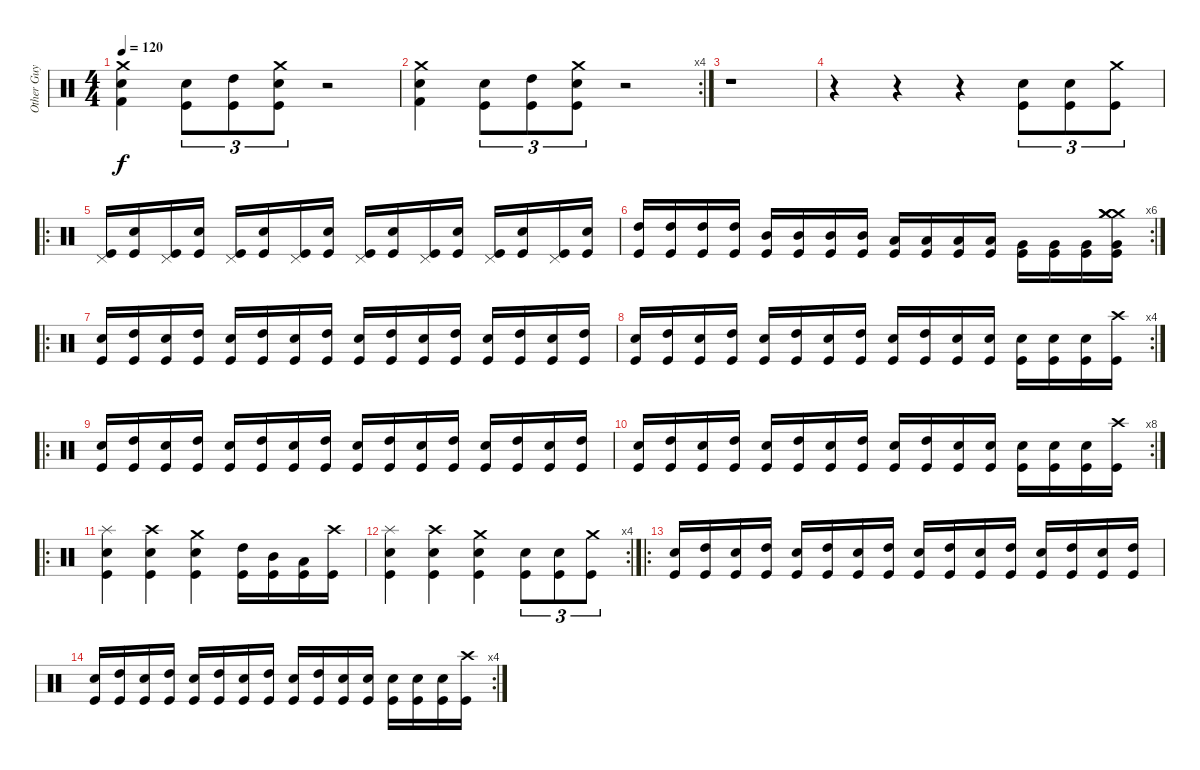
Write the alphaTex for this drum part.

\track ("Other Guy" "Other Guy") {instrument percussion}
\staff {score}
\articulation defaults
\ts (4 4)
\tempo 120
\clef neutral
\ks c
("Crash medium (hit)" "Electric Snare (hit)" "Kick (hit) 2").4{dy f} ("Electric Snare (hit)" "Kick (hit)").8{tu (3 2)} ("High Tom (hit)" "Kick (hit)").8{tu (3 2)} ("Crash medium (hit)" "Electric Snare (hit)" "Kick (hit)").8{tu (3 2)} r.2 |
\rc 4
("Crash medium (hit)" "Electric Snare (hit)" "Kick (hit) 2").4 ("Electric Snare (hit)" "Kick (hit)").8{tu (3 2)} ("High Tom (hit)" "Kick (hit)").8{tu (3 2)} ("Crash medium (hit)" "Electric Snare (hit)" "Kick (hit)").8{tu (3 2)} r.2 |
r.1 |
r.4 r.4 r.4 ("Electric Snare (hit)" "Kick (hit)").8{tu (3 2)} ("Electric Snare (hit)" "Kick (hit)").8{tu (3 2)} ("Crash medium (hit)" "Kick (hit)").8{tu (3 2)} |
\ro
("Pedal Hi-Hat (hit)" "Kick (hit)").16 ("Electric Snare (hit)" "Kick (hit)").16 ("Pedal Hi-Hat (hit)" "Kick (hit)").16 ("Electric Snare (hit)" "Kick (hit)").16 ("Pedal Hi-Hat (hit)" "Kick (hit)").16 ("Electric Snare (hit)" "Kick (hit)").16 ("Pedal Hi-Hat (hit)" "Kick (hit)").16 ("Electric Snare (hit)" "Kick (hit)").16 ("Pedal Hi-Hat (hit)" "Kick (hit)").16 ("Electric Snare (hit)" "Kick (hit)").16 ("Pedal Hi-Hat (hit)" "Kick (hit)").16 ("Electric Snare (hit)" "Kick (hit)").16 ("Pedal Hi-Hat (hit)" "Kick (hit)").16 ("Electric Snare (hit)" "Kick (hit)").16 ("Pedal Hi-Hat (hit)" "Kick (hit)").16 ("Electric Snare (hit)" "Kick (hit)").16 |
\rc 6
("High Tom (hit)" "Kick (hit)").16 ("High Tom (hit)" "Kick (hit)").16 ("High Tom (hit)" "Kick (hit)").16 ("High Tom (hit)" "Kick (hit)").16 ("Mid Tom (hit)" "Kick (hit)").16 ("Mid Tom (hit)" "Kick (hit)").16 ("Mid Tom (hit)" "Kick (hit)").16 ("Mid Tom (hit)" "Kick (hit)").16 ("Low Tom (hit)" "Kick (hit)").16 ("Low Tom (hit)" "Kick (hit)").16 ("Low Tom (hit)" "Kick (hit)").16 ("Low Tom (hit)" "Kick (hit)").16 ("Very Low Tom (hit)" "Kick (hit)").16 ("Very Low Tom (hit)" "Kick (hit)").16 ("Very Low Tom (hit)" "Kick (hit)").16 ("Very Low Tom (hit)" "Crash medium (hit)" "Crash medium (hit)" "Crash medium (hit)" "Kick (hit)").16 |
\ro
("Electric Snare (hit)" "Kick (hit)").16 ("High Tom (hit)" "Kick (hit)").16 ("Electric Snare (hit)" "Kick (hit)").16 ("High Tom (hit)" "Kick (hit)").16 ("Electric Snare (hit)" "Kick (hit)").16 ("High Tom (hit)" "Kick (hit)").16 ("Electric Snare (hit)" "Kick (hit)").16 ("High Tom (hit)" "Kick (hit)").16 ("Electric Snare (hit)" "Kick (hit)").16 ("High Tom (hit)" "Kick (hit)").16 ("Electric Snare (hit)" "Kick (hit)").16 ("High Tom (hit)" "Kick (hit)").16 ("Electric Snare (hit)" "Kick (hit)").16 ("High Tom (hit)" "Kick (hit)").16 ("Electric Snare (hit)" "Kick (hit)").16 ("High Tom (hit)" "Kick (hit)").16 |
\rc 4
("Electric Snare (hit)" "Kick (hit)").16 ("High Tom (hit)" "Kick (hit)").16 ("Electric Snare (hit)" "Kick (hit)").16 ("High Tom (hit)" "Kick (hit)").16 ("Electric Snare (hit)" "Kick (hit)").16 ("High Tom (hit)" "Kick (hit)").16 ("Electric Snare (hit)" "Kick (hit)").16 ("High Tom (hit)" "Kick (hit)").16 ("Electric Snare (hit)" "Kick (hit)").16 ("High Tom (hit)" "Kick (hit)").16 ("Electric Snare (hit)" "Kick (hit)").16 ("Electric Snare (hit)" "Kick (hit)").16 ("Electric Snare (hit)" "Kick (hit)").16 ("Electric Snare (hit)" "Kick (hit)").16 ("Electric Snare (hit)" "Kick (hit)").16 ("Crash high (hit)" "Kick (hit)").16 |
\ro
("Electric Snare (hit)" "Kick (hit)").16 ("High Tom (hit)" "Kick (hit)").16 ("Electric Snare (hit)" "Kick (hit)").16 ("High Tom (hit)" "Kick (hit)").16 ("Electric Snare (hit)" "Kick (hit)").16 ("High Tom (hit)" "Kick (hit)").16 ("Electric Snare (hit)" "Kick (hit)").16 ("High Tom (hit)" "Kick (hit)").16 ("Electric Snare (hit)" "Kick (hit)").16 ("High Tom (hit)" "Kick (hit)").16 ("Electric Snare (hit)" "Kick (hit)").16 ("High Tom (hit)" "Kick (hit)").16 ("Electric Snare (hit)" "Kick (hit)").16 ("High Tom (hit)" "Kick (hit)").16 ("Electric Snare (hit)" "Kick (hit)").16 ("High Tom (hit)" "Kick (hit)").16 |
\rc 8
("Electric Snare (hit)" "Kick (hit)").16 ("High Tom (hit)" "Kick (hit)").16 ("Electric Snare (hit)" "Kick (hit)").16 ("High Tom (hit)" "Kick (hit)").16 ("Electric Snare (hit)" "Kick (hit)").16 ("High Tom (hit)" "Kick (hit)").16 ("Electric Snare (hit)" "Kick (hit)").16 ("High Tom (hit)" "Kick (hit)").16 ("Electric Snare (hit)" "Kick (hit)").16 ("High Tom (hit)" "Kick (hit)").16 ("Electric Snare (hit)" "Kick (hit)").16 ("Electric Snare (hit)" "Kick (hit)").16 ("Electric Snare (hit)" "Kick (hit)").16 ("Electric Snare (hit)" "Kick (hit)").16 ("Electric Snare (hit)" "Kick (hit)").16 ("Crash high (hit)" "Kick (hit)").16 |
\ro
("Splash (hit)" "Electric Snare (hit)" "Kick (hit)").4 ("Crash high (hit)" "Electric Snare (hit)" "Kick (hit)").4 ("Crash medium (hit)" "Electric Snare (hit)" "Kick (hit)").4 ("High Tom (hit)" "Kick (hit)").16 ("Mid Tom (hit)" "Kick (hit)").16 ("Low Tom (hit)" "Kick (hit)").16 ("Crash high (hit)" "Kick (hit)").16 |
\rc 4
("Splash (hit)" "Electric Snare (hit)" "Kick (hit)").4 ("Crash high (hit)" "Electric Snare (hit)" "Kick (hit)").4 ("Crash medium (hit)" "Electric Snare (hit)" "Kick (hit)").4 ("Electric Snare (hit)" "Kick (hit)").8{tu (3 2)} ("Electric Snare (hit)" "Kick (hit)").8{tu (3 2)} ("Crash medium (hit)" "Kick (hit)").8{tu (3 2)} |
\ro
("Electric Snare (hit)" "Kick (hit)").16 ("High Tom (hit)" "Kick (hit)").16 ("Electric Snare (hit)" "Kick (hit)").16 ("High Tom (hit)" "Kick (hit)").16 ("Electric Snare (hit)" "Kick (hit)").16 ("High Tom (hit)" "Kick (hit)").16 ("Electric Snare (hit)" "Kick (hit)").16 ("High Tom (hit)" "Kick (hit)").16 ("Electric Snare (hit)" "Kick (hit)").16 ("High Tom (hit)" "Kick (hit)").16 ("Electric Snare (hit)" "Kick (hit)").16 ("High Tom (hit)" "Kick (hit)").16 ("Electric Snare (hit)" "Kick (hit)").16 ("High Tom (hit)" "Kick (hit)").16 ("Electric Snare (hit)" "Kick (hit)").16 ("High Tom (hit)" "Kick (hit)").16 |
\rc 4
("Electric Snare (hit)" "Kick (hit)").16 ("High Tom (hit)" "Kick (hit)").16 ("Electric Snare (hit)" "Kick (hit)").16 ("High Tom (hit)" "Kick (hit)").16 ("Electric Snare (hit)" "Kick (hit)").16 ("High Tom (hit)" "Kick (hit)").16 ("Electric Snare (hit)" "Kick (hit)").16 ("High Tom (hit)" "Kick (hit)").16 ("Electric Snare (hit)" "Kick (hit)").16 ("High Tom (hit)" "Kick (hit)").16 ("Electric Snare (hit)" "Kick (hit)").16 ("Electric Snare (hit)" "Kick (hit)").16 ("Electric Snare (hit)" "Kick (hit)").16 ("Electric Snare (hit)" "Kick (hit)").16 ("Electric Snare (hit)" "Kick (hit)").16 ("Crash high (hit)" "Kick (hit)").16
